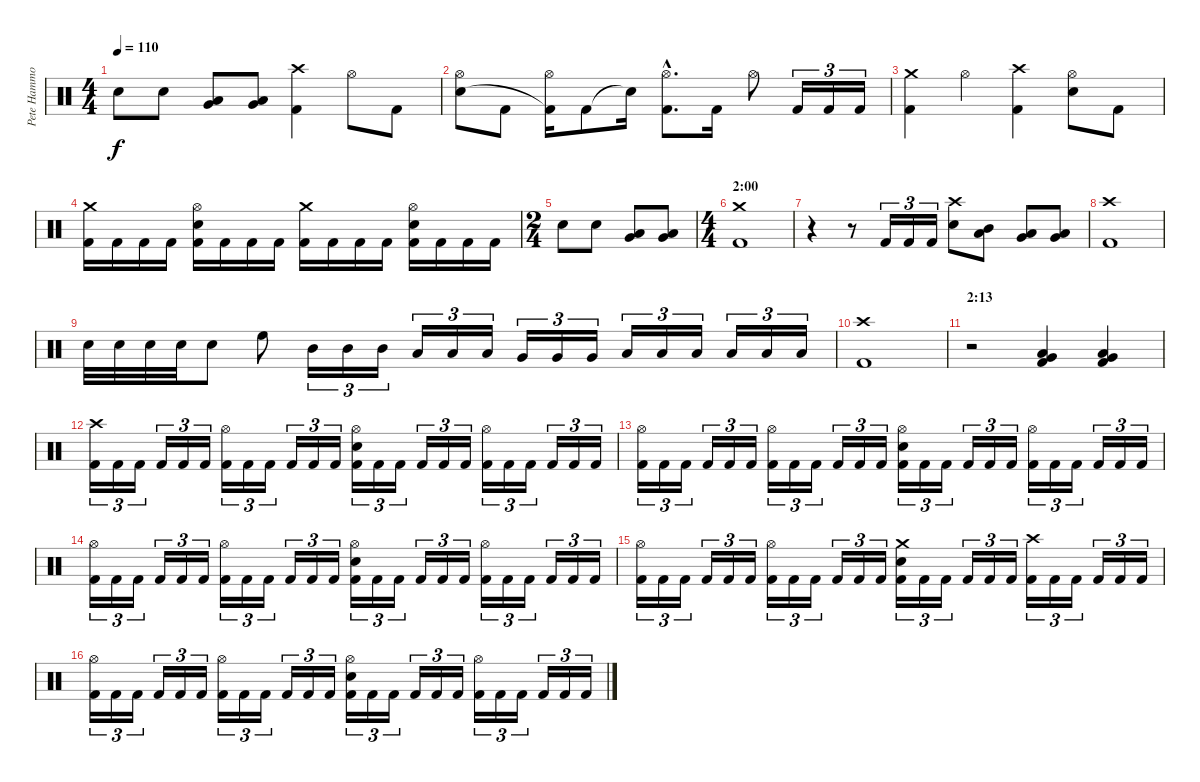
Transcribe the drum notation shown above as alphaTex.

\track ("Pete Hammoura" "Pete Hammo") {instrument percussion}
\staff {score}
\articulation defaults
\ts (4 4)
\tempo 110
\clef neutral
\ks c "Electric Snare (hit)".8{dy f} "Electric Snare (hit)".8
("Low Tom (hit)" "Very Low Tom (hit)").8 ("Very Low Tom (hit)" "Low Floor Tom (hit)").8 ("Crash high (hit)" "Kick (hit) 2").4 "Hi-Hat (open)".8 "Kick (hit) 2".8 |
("Hi-Hat (open)" "Electric Snare (hit)").8 "Kick (hit) 2".8 ("Hi-Hat (open)" "Kick (hit) 2"{t}).16 "Kick (hit) 2".8 "Snare (hit)"{t}.16 ("Hi-Hat (open)"{hac} "Kick (hit) 2"{hac}).8{d} "Kick (hit) 2".16 "Hi-Hat (open)".8 "Kick (hit) 2".16{tu (3 2)} "Kick (hit) 2".16{tu (3 2)} "Kick (hit) 2".16{tu (3 2)} |
("Crash medium (hit)" "Kick (hit) 2").4 "Hi-Hat (open)".4 ("Crash high (hit)" "Kick (hit) 2").4 ("Hi-Hat (open)" "Electric Snare (hit)").8 "Kick (hit) 2".8 |
("Crash medium (hit)" "Kick (hit) 2").16 "Kick (hit) 2".16 "Kick (hit) 2".16 "Kick (hit) 2".16 ("Hi-Hat (open)" "Electric Snare (hit)" "Kick (hit) 2").16 "Kick (hit) 2".16 "Kick (hit) 2".16 "Kick (hit) 2".16 ("Crash medium (hit)" "Kick (hit) 2").16 "Kick (hit) 2".16 "Kick (hit) 2".16 "Kick (hit) 2".16 ("Hi-Hat (open)" "Electric Snare (hit)" "Kick (hit) 2").16 "Kick (hit) 2".16 "Kick (hit) 2".16 "Kick (hit) 2".16 |
\ts (2 4)
"Electric Snare (hit)".8 "Electric Snare (hit)".8 ("Low Tom (hit)" "Very Low Tom (hit)").8 ("Very Low Tom (hit)" "Low Floor Tom (hit)").8 |
\ts (4 4)
\section ("" "2:00")
("Crash medium (hit)" "Kick (hit) 2").1 |
r.4 r.8 "Kick (hit) 2".16{tu (3 2)} "Kick (hit) 2".16{tu (3 2)} "Kick (hit) 2".16{tu (3 2)} ("Crash high (hit)" "Electric Snare (hit)").8 ("Mid Tom (hit)" "Low Tom (hit)").8 ("Low Tom (hit)" "Very Low Tom (hit)").8 ("Very Low Tom (hit)" "Low Floor Tom (hit)").8 |
("Crash high (hit)" "Kick (hit) 2").1 |
"Electric Snare (hit)".32 "Electric Snare (hit)".32 "Electric Snare (hit)".32 "Electric Snare (hit)".32 "Electric Snare (hit)".8 "High Floor Tom (hit)".8 "Mid Tom (hit)".16{tu (3 2)} "Mid Tom (hit)".16{tu (3 2)} "Mid Tom (hit)".16{tu (3 2)} "Low Tom (hit)".16{tu (3 2)} "Low Tom (hit)".16{tu (3 2)} "Low Tom (hit)".16{tu (3 2)} "Very Low Tom (hit)".16{tu (3 2)} "Very Low Tom (hit)".16{tu (3 2)} "Very Low Tom (hit)".16{tu (3 2)} "Low Floor Tom (hit)".16{tu (3 2)} "Low Floor Tom (hit)".16{tu (3 2)} "Low Floor Tom (hit)".16{tu (3 2)} "Low Floor Tom (hit)".16{tu (3 2)} "Low Floor Tom (hit)".16{tu (3 2)} "Low Floor Tom (hit)".16{tu (3 2)} |
("Crash high (hit)" "Kick (hit) 2").1 |
\section ("" "2:13")
r.2 ("Low Tom (hit)" "Very Low Tom (hit)" "Kick (hit) 2").4 ("Very Low Tom (hit)" "Low Floor Tom (hit)" "Kick (hit) 2").4 |
("Crash high (hit)" "Kick (hit) 2").16{tu (3 2)} "Kick (hit) 2".16{tu (3 2)} "Kick (hit) 2".16{tu (3 2)} "Kick (hit) 2".16{tu (3 2)} "Kick (hit) 2".16{tu (3 2)} "Kick (hit) 2".16{tu (3 2)} ("Hi-Hat (open)" "Kick (hit) 2").16{tu (3 2)} "Kick (hit) 2".16{tu (3 2)} "Kick (hit) 2".16{tu (3 2)} "Kick (hit) 2".16{tu (3 2)} "Kick (hit) 2".16{tu (3 2)} "Kick (hit) 2".16{tu (3 2)} ("Hi-Hat (open)" "Electric Snare (hit)" "Kick (hit) 2").16{tu (3 2)} "Kick (hit) 2".16{tu (3 2)} "Kick (hit) 2".16{tu (3 2)} "Kick (hit) 2".16{tu (3 2)} "Kick (hit) 2".16{tu (3 2)} "Kick (hit) 2".16{tu (3 2)} ("Hi-Hat (open)" "Kick (hit) 2").16{tu (3 2)} "Kick (hit) 2".16{tu (3 2)} "Kick (hit) 2".16{tu (3 2)} "Kick (hit) 2".16{tu (3 2)} "Kick (hit) 2".16{tu (3 2)} "Kick (hit) 2".16{tu (3 2)} |
("Hi-Hat (open)" "Kick (hit) 2").16{tu (3 2)} "Kick (hit) 2".16{tu (3 2)} "Kick (hit) 2".16{tu (3 2)} "Kick (hit) 2".16{tu (3 2)} "Kick (hit) 2".16{tu (3 2)} "Kick (hit) 2".16{tu (3 2)} ("Hi-Hat (open)" "Kick (hit) 2").16{tu (3 2)} "Kick (hit) 2".16{tu (3 2)} "Kick (hit) 2".16{tu (3 2)} "Kick (hit) 2".16{tu (3 2)} "Kick (hit) 2".16{tu (3 2)} "Kick (hit) 2".16{tu (3 2)} ("Hi-Hat (open)" "Electric Snare (hit)" "Kick (hit) 2").16{tu (3 2)} "Kick (hit) 2".16{tu (3 2)} "Kick (hit) 2".16{tu (3 2)} "Kick (hit) 2".16{tu (3 2)} "Kick (hit) 2".16{tu (3 2)} "Kick (hit) 2".16{tu (3 2)} ("Hi-Hat (open)" "Kick (hit) 2").16{tu (3 2)} "Kick (hit) 2".16{tu (3 2)} "Kick (hit) 2".16{tu (3 2)} "Kick (hit) 2".16{tu (3 2)} "Kick (hit) 2".16{tu (3 2)} "Kick (hit) 2".16{tu (3 2)} |
("Hi-Hat (open)" "Kick (hit) 2").16{tu (3 2)} "Kick (hit) 2".16{tu (3 2)} "Kick (hit) 2".16{tu (3 2)} "Kick (hit) 2".16{tu (3 2)} "Kick (hit) 2".16{tu (3 2)} "Kick (hit) 2".16{tu (3 2)} ("Hi-Hat (open)" "Kick (hit) 2").16{tu (3 2)} "Kick (hit) 2".16{tu (3 2)} "Kick (hit) 2".16{tu (3 2)} "Kick (hit) 2".16{tu (3 2)} "Kick (hit) 2".16{tu (3 2)} "Kick (hit) 2".16{tu (3 2)} ("Hi-Hat (open)" "Electric Snare (hit)" "Kick (hit) 2").16{tu (3 2)} "Kick (hit) 2".16{tu (3 2)} "Kick (hit) 2".16{tu (3 2)} "Kick (hit) 2".16{tu (3 2)} "Kick (hit) 2".16{tu (3 2)} "Kick (hit) 2".16{tu (3 2)} ("Hi-Hat (open)" "Kick (hit) 2").16{tu (3 2)} "Kick (hit) 2".16{tu (3 2)} "Kick (hit) 2".16{tu (3 2)} "Kick (hit) 2".16{tu (3 2)} "Kick (hit) 2".16{tu (3 2)} "Kick (hit) 2".16{tu (3 2)} |
("Hi-Hat (open)" "Kick (hit) 2").16{tu (3 2)} "Kick (hit) 2".16{tu (3 2)} "Kick (hit) 2".16{tu (3 2)} "Kick (hit) 2".16{tu (3 2)} "Kick (hit) 2".16{tu (3 2)} "Kick (hit) 2".16{tu (3 2)} ("Hi-Hat (open)" "Kick (hit) 2").16{tu (3 2)} "Kick (hit) 2".16{tu (3 2)} "Kick (hit) 2".16{tu (3 2)} "Kick (hit) 2".16{tu (3 2)} "Kick (hit) 2".16{tu (3 2)} "Kick (hit) 2".16{tu (3 2)} ("Crash medium (hit)" "Electric Snare (hit)" "Kick (hit) 2").16{tu (3 2)} "Kick (hit) 2".16{tu (3 2)} "Kick (hit) 2".16{tu (3 2)} "Kick (hit) 2".16{tu (3 2)} "Kick (hit) 2".16{tu (3 2)} "Kick (hit) 2".16{tu (3 2)} ("Crash high (hit)" "Kick (hit) 2").16{tu (3 2)} "Kick (hit) 2".16{tu (3 2)} "Kick (hit) 2".16{tu (3 2)} "Kick (hit) 2".16{tu (3 2)} "Kick (hit) 2".16{tu (3 2)} "Kick (hit) 2".16{tu (3 2)} |
("Hi-Hat (open)" "Kick (hit) 2").16{tu (3 2)} "Kick (hit) 2".16{tu (3 2)} "Kick (hit) 2".16{tu (3 2)} "Kick (hit) 2".16{tu (3 2)} "Kick (hit) 2".16{tu (3 2)} "Kick (hit) 2".16{tu (3 2)} ("Hi-Hat (open)" "Kick (hit) 2").16{tu (3 2)} "Kick (hit) 2".16{tu (3 2)} "Kick (hit) 2".16{tu (3 2)} "Kick (hit) 2".16{tu (3 2)} "Kick (hit) 2".16{tu (3 2)} "Kick (hit) 2".16{tu (3 2)} ("Hi-Hat (open)" "Electric Snare (hit)" "Kick (hit) 2").16{tu (3 2)} "Kick (hit) 2".16{tu (3 2)} "Kick (hit) 2".16{tu (3 2)} "Kick (hit) 2".16{tu (3 2)} "Kick (hit) 2".16{tu (3 2)} "Kick (hit) 2".16{tu (3 2)} ("Hi-Hat (open)" "Kick (hit) 2").16{tu (3 2)} "Kick (hit) 2".16{tu (3 2)} "Kick (hit) 2".16{tu (3 2)} "Kick (hit) 2".16{tu (3 2)} "Kick (hit) 2".16{tu (3 2)} "Kick (hit) 2".16{tu (3 2)}
